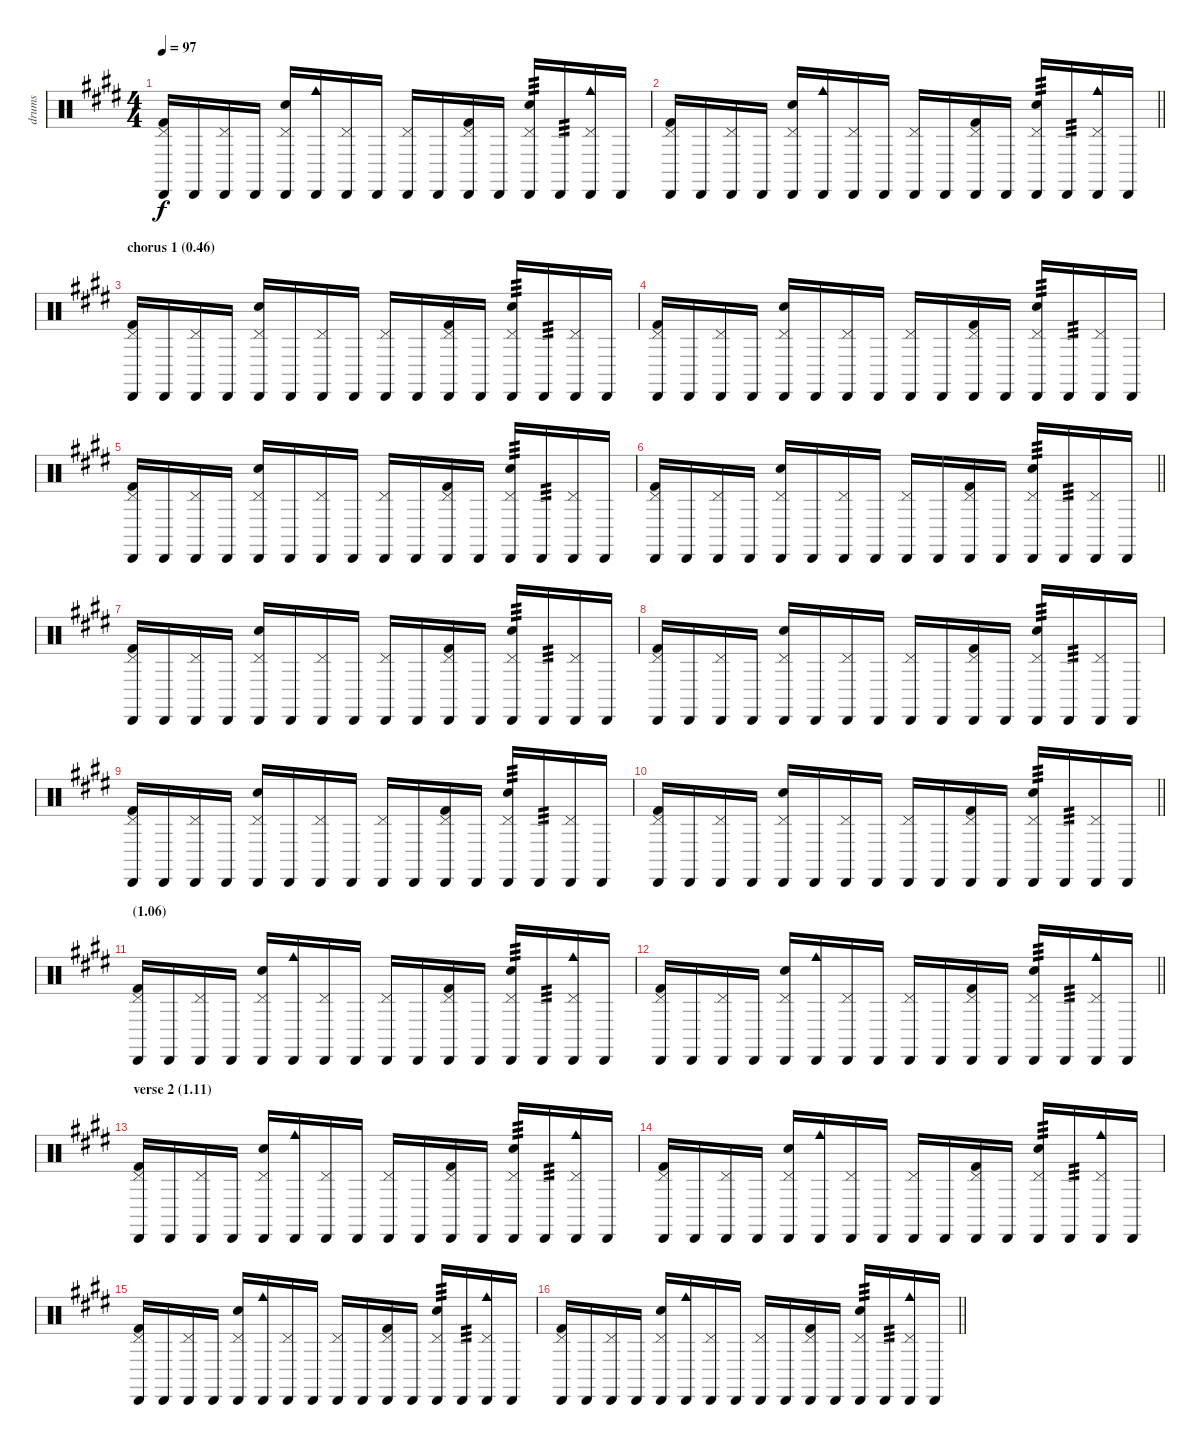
\track ("drums" "drums") {instrument percussion}
\staff {score}
\articulation defaults
\ts (4 4)
\tempo 97
\clef neutral
\ks e
("Pedal Hi-Hat (hit)" "Cabasa (hit)" "Kick (hit) 2").16{dy f} "Cabasa (hit)".16 ("Pedal Hi-Hat (hit)" "Cabasa (hit)").16 "Cabasa (hit)".16 ("Pedal Hi-Hat (hit)" "Cabasa (hit)" "Electric Snare (hit)").16 ("Cabasa (hit)" "Cowbell medium (hit)").16 ("Pedal Hi-Hat (hit)" "Cabasa (hit)").16 "Cabasa (hit)".16 ("Pedal Hi-Hat (hit)" "Cabasa (hit)").16 "Cabasa (hit)".16 ("Pedal Hi-Hat (hit)" "Cabasa (hit)" "Kick (hit) 2").16 "Cabasa (hit)".16 ("Pedal Hi-Hat (hit)" "Cabasa (hit)" "Electric Snare (hit)").16{tp 3} "Cabasa (hit)".16{tp 3} ("Pedal Hi-Hat (hit)" "Cabasa (hit)" "Cowbell medium (hit)").16 "Cabasa (hit)".16 |
\barLineRight lightlight
("Pedal Hi-Hat (hit)" "Cabasa (hit)" "Kick (hit) 2").16 "Cabasa (hit)".16 ("Pedal Hi-Hat (hit)" "Cabasa (hit)").16 "Cabasa (hit)".16 ("Pedal Hi-Hat (hit)" "Cabasa (hit)" "Electric Snare (hit)").16 ("Cabasa (hit)" "Cowbell medium (hit)").16 ("Pedal Hi-Hat (hit)" "Cabasa (hit)").16 "Cabasa (hit)".16 ("Pedal Hi-Hat (hit)" "Cabasa (hit)").16 "Cabasa (hit)".16 ("Pedal Hi-Hat (hit)" "Cabasa (hit)" "Kick (hit) 2").16 "Cabasa (hit)".16 ("Pedal Hi-Hat (hit)" "Cabasa (hit)" "Electric Snare (hit)").16{tp 3} "Cabasa (hit)".16{tp 3} ("Pedal Hi-Hat (hit)" "Cabasa (hit)" "Cowbell medium (hit)").16 "Cabasa (hit)".16 |
\section ("" "chorus 1 (0.46)")
("Pedal Hi-Hat (hit)" "Cabasa (hit)" "Kick (hit) 2").16 "Cabasa (hit)".16 ("Pedal Hi-Hat (hit)" "Cabasa (hit)").16 "Cabasa (hit)".16 ("Pedal Hi-Hat (hit)" "Cabasa (hit)" "Electric Snare (hit)").16 "Cabasa (hit)".16 ("Pedal Hi-Hat (hit)" "Cabasa (hit)").16 "Cabasa (hit)".16 ("Pedal Hi-Hat (hit)" "Cabasa (hit)").16 "Cabasa (hit)".16 ("Pedal Hi-Hat (hit)" "Cabasa (hit)" "Kick (hit) 2").16 "Cabasa (hit)".16 ("Pedal Hi-Hat (hit)" "Cabasa (hit)" "Electric Snare (hit)").16{tp 3} "Cabasa (hit)".16{tp 3} ("Pedal Hi-Hat (hit)" "Cabasa (hit)").16 "Cabasa (hit)".16 |
("Pedal Hi-Hat (hit)" "Cabasa (hit)" "Kick (hit) 2").16 "Cabasa (hit)".16 ("Pedal Hi-Hat (hit)" "Cabasa (hit)").16 "Cabasa (hit)".16 ("Pedal Hi-Hat (hit)" "Cabasa (hit)" "Electric Snare (hit)").16 "Cabasa (hit)".16 ("Pedal Hi-Hat (hit)" "Cabasa (hit)").16 "Cabasa (hit)".16 ("Pedal Hi-Hat (hit)" "Cabasa (hit)").16 "Cabasa (hit)".16 ("Pedal Hi-Hat (hit)" "Cabasa (hit)" "Kick (hit) 2").16 "Cabasa (hit)".16 ("Pedal Hi-Hat (hit)" "Cabasa (hit)" "Electric Snare (hit)").16{tp 3} "Cabasa (hit)".16{tp 3} ("Pedal Hi-Hat (hit)" "Cabasa (hit)").16 "Cabasa (hit)".16 |
("Pedal Hi-Hat (hit)" "Cabasa (hit)" "Kick (hit) 2").16 "Cabasa (hit)".16 ("Pedal Hi-Hat (hit)" "Cabasa (hit)").16 "Cabasa (hit)".16 ("Pedal Hi-Hat (hit)" "Cabasa (hit)" "Electric Snare (hit)").16 "Cabasa (hit)".16 ("Pedal Hi-Hat (hit)" "Cabasa (hit)").16 "Cabasa (hit)".16 ("Pedal Hi-Hat (hit)" "Cabasa (hit)").16 "Cabasa (hit)".16 ("Pedal Hi-Hat (hit)" "Cabasa (hit)" "Kick (hit) 2").16 "Cabasa (hit)".16 ("Pedal Hi-Hat (hit)" "Cabasa (hit)" "Electric Snare (hit)").16{tp 3} "Cabasa (hit)".16{tp 3} ("Pedal Hi-Hat (hit)" "Cabasa (hit)").16 "Cabasa (hit)".16 |
\barLineRight lightlight
("Pedal Hi-Hat (hit)" "Cabasa (hit)" "Kick (hit) 2").16 "Cabasa (hit)".16 ("Pedal Hi-Hat (hit)" "Cabasa (hit)").16 "Cabasa (hit)".16 ("Pedal Hi-Hat (hit)" "Cabasa (hit)" "Electric Snare (hit)").16 "Cabasa (hit)".16 ("Pedal Hi-Hat (hit)" "Cabasa (hit)").16 "Cabasa (hit)".16 ("Pedal Hi-Hat (hit)" "Cabasa (hit)").16 "Cabasa (hit)".16 ("Pedal Hi-Hat (hit)" "Cabasa (hit)" "Kick (hit) 2").16 "Cabasa (hit)".16 ("Pedal Hi-Hat (hit)" "Cabasa (hit)" "Electric Snare (hit)").16{tp 3} "Cabasa (hit)".16{tp 3} ("Pedal Hi-Hat (hit)" "Cabasa (hit)").16 "Cabasa (hit)".16 |
("Pedal Hi-Hat (hit)" "Cabasa (hit)" "Kick (hit) 2").16 "Cabasa (hit)".16 ("Pedal Hi-Hat (hit)" "Cabasa (hit)").16 "Cabasa (hit)".16 ("Pedal Hi-Hat (hit)" "Cabasa (hit)" "Electric Snare (hit)").16 "Cabasa (hit)".16 ("Pedal Hi-Hat (hit)" "Cabasa (hit)").16 "Cabasa (hit)".16 ("Pedal Hi-Hat (hit)" "Cabasa (hit)").16 "Cabasa (hit)".16 ("Pedal Hi-Hat (hit)" "Cabasa (hit)" "Kick (hit) 2").16 "Cabasa (hit)".16 ("Pedal Hi-Hat (hit)" "Cabasa (hit)" "Electric Snare (hit)").16{tp 3} "Cabasa (hit)".16{tp 3} ("Pedal Hi-Hat (hit)" "Cabasa (hit)").16 "Cabasa (hit)".16 |
("Pedal Hi-Hat (hit)" "Cabasa (hit)" "Kick (hit) 2").16 "Cabasa (hit)".16 ("Pedal Hi-Hat (hit)" "Cabasa (hit)").16 "Cabasa (hit)".16 ("Pedal Hi-Hat (hit)" "Cabasa (hit)" "Electric Snare (hit)").16 "Cabasa (hit)".16 ("Pedal Hi-Hat (hit)" "Cabasa (hit)").16 "Cabasa (hit)".16 ("Pedal Hi-Hat (hit)" "Cabasa (hit)").16 "Cabasa (hit)".16 ("Pedal Hi-Hat (hit)" "Cabasa (hit)" "Kick (hit) 2").16 "Cabasa (hit)".16 ("Pedal Hi-Hat (hit)" "Cabasa (hit)" "Electric Snare (hit)").16{tp 3} "Cabasa (hit)".16{tp 3} ("Pedal Hi-Hat (hit)" "Cabasa (hit)").16 "Cabasa (hit)".16 |
("Pedal Hi-Hat (hit)" "Cabasa (hit)" "Kick (hit) 2").16 "Cabasa (hit)".16 ("Pedal Hi-Hat (hit)" "Cabasa (hit)").16 "Cabasa (hit)".16 ("Pedal Hi-Hat (hit)" "Cabasa (hit)" "Electric Snare (hit)").16 "Cabasa (hit)".16 ("Pedal Hi-Hat (hit)" "Cabasa (hit)").16 "Cabasa (hit)".16 ("Pedal Hi-Hat (hit)" "Cabasa (hit)").16 "Cabasa (hit)".16 ("Pedal Hi-Hat (hit)" "Cabasa (hit)" "Kick (hit) 2").16 "Cabasa (hit)".16 ("Pedal Hi-Hat (hit)" "Cabasa (hit)" "Electric Snare (hit)").16{tp 3} "Cabasa (hit)".16{tp 3} ("Pedal Hi-Hat (hit)" "Cabasa (hit)").16 "Cabasa (hit)".16 |
\barLineRight lightlight
("Pedal Hi-Hat (hit)" "Cabasa (hit)" "Kick (hit) 2").16 "Cabasa (hit)".16 ("Pedal Hi-Hat (hit)" "Cabasa (hit)").16 "Cabasa (hit)".16 ("Pedal Hi-Hat (hit)" "Cabasa (hit)" "Electric Snare (hit)").16 "Cabasa (hit)".16 ("Pedal Hi-Hat (hit)" "Cabasa (hit)").16 "Cabasa (hit)".16 ("Pedal Hi-Hat (hit)" "Cabasa (hit)").16 "Cabasa (hit)".16 ("Pedal Hi-Hat (hit)" "Cabasa (hit)" "Kick (hit) 2").16 "Cabasa (hit)".16 ("Pedal Hi-Hat (hit)" "Cabasa (hit)" "Electric Snare (hit)").16{tp 3} "Cabasa (hit)".16{tp 3} ("Pedal Hi-Hat (hit)" "Cabasa (hit)").16 "Cabasa (hit)".16 |
\section ("" "(1.06)")
("Pedal Hi-Hat (hit)" "Cabasa (hit)" "Kick (hit) 2").16 "Cabasa (hit)".16 ("Pedal Hi-Hat (hit)" "Cabasa (hit)").16 "Cabasa (hit)".16 ("Pedal Hi-Hat (hit)" "Cabasa (hit)" "Electric Snare (hit)").16 ("Cabasa (hit)" "Cowbell medium (hit)").16 ("Pedal Hi-Hat (hit)" "Cabasa (hit)").16 "Cabasa (hit)".16 ("Pedal Hi-Hat (hit)" "Cabasa (hit)").16 "Cabasa (hit)".16 ("Pedal Hi-Hat (hit)" "Cabasa (hit)" "Kick (hit) 2").16 "Cabasa (hit)".16 ("Pedal Hi-Hat (hit)" "Cabasa (hit)" "Electric Snare (hit)").16{tp 3} "Cabasa (hit)".16{tp 3} ("Pedal Hi-Hat (hit)" "Cabasa (hit)" "Cowbell medium (hit)").16 "Cabasa (hit)".16 |
\barLineRight lightlight
("Pedal Hi-Hat (hit)" "Cabasa (hit)" "Kick (hit) 2").16 "Cabasa (hit)".16 ("Pedal Hi-Hat (hit)" "Cabasa (hit)").16 "Cabasa (hit)".16 ("Pedal Hi-Hat (hit)" "Cabasa (hit)" "Electric Snare (hit)").16 ("Cabasa (hit)" "Cowbell medium (hit)").16 ("Pedal Hi-Hat (hit)" "Cabasa (hit)").16 "Cabasa (hit)".16 ("Pedal Hi-Hat (hit)" "Cabasa (hit)").16 "Cabasa (hit)".16 ("Pedal Hi-Hat (hit)" "Cabasa (hit)" "Kick (hit) 2").16 "Cabasa (hit)".16 ("Pedal Hi-Hat (hit)" "Cabasa (hit)" "Electric Snare (hit)").16{tp 3} "Cabasa (hit)".16{tp 3} ("Pedal Hi-Hat (hit)" "Cabasa (hit)" "Cowbell medium (hit)").16 "Cabasa (hit)".16 |
\section ("" "verse 2 (1.11)")
("Pedal Hi-Hat (hit)" "Cabasa (hit)" "Kick (hit) 2").16 "Cabasa (hit)".16 ("Pedal Hi-Hat (hit)" "Cabasa (hit)").16 "Cabasa (hit)".16 ("Pedal Hi-Hat (hit)" "Cabasa (hit)" "Electric Snare (hit)").16 ("Cabasa (hit)" "Cowbell medium (hit)").16 ("Pedal Hi-Hat (hit)" "Cabasa (hit)").16 "Cabasa (hit)".16 ("Pedal Hi-Hat (hit)" "Cabasa (hit)").16 "Cabasa (hit)".16 ("Pedal Hi-Hat (hit)" "Cabasa (hit)" "Kick (hit) 2").16 "Cabasa (hit)".16 ("Pedal Hi-Hat (hit)" "Cabasa (hit)" "Electric Snare (hit)").16{tp 3} "Cabasa (hit)".16{tp 3} ("Pedal Hi-Hat (hit)" "Cabasa (hit)" "Cowbell medium (hit)").16 "Cabasa (hit)".16 |
("Pedal Hi-Hat (hit)" "Cabasa (hit)" "Kick (hit) 2").16 "Cabasa (hit)".16 ("Pedal Hi-Hat (hit)" "Cabasa (hit)").16 "Cabasa (hit)".16 ("Pedal Hi-Hat (hit)" "Cabasa (hit)" "Electric Snare (hit)").16 ("Cabasa (hit)" "Cowbell medium (hit)").16 ("Pedal Hi-Hat (hit)" "Cabasa (hit)").16 "Cabasa (hit)".16 ("Pedal Hi-Hat (hit)" "Cabasa (hit)").16 "Cabasa (hit)".16 ("Pedal Hi-Hat (hit)" "Cabasa (hit)" "Kick (hit) 2").16 "Cabasa (hit)".16 ("Pedal Hi-Hat (hit)" "Cabasa (hit)" "Electric Snare (hit)").16{tp 3} "Cabasa (hit)".16{tp 3} ("Pedal Hi-Hat (hit)" "Cabasa (hit)" "Cowbell medium (hit)").16 "Cabasa (hit)".16 |
("Pedal Hi-Hat (hit)" "Cabasa (hit)" "Kick (hit) 2").16 "Cabasa (hit)".16 ("Pedal Hi-Hat (hit)" "Cabasa (hit)").16 "Cabasa (hit)".16 ("Pedal Hi-Hat (hit)" "Cabasa (hit)" "Electric Snare (hit)").16 ("Cabasa (hit)" "Cowbell medium (hit)").16 ("Pedal Hi-Hat (hit)" "Cabasa (hit)").16 "Cabasa (hit)".16 ("Pedal Hi-Hat (hit)" "Cabasa (hit)").16 "Cabasa (hit)".16 ("Pedal Hi-Hat (hit)" "Cabasa (hit)" "Kick (hit) 2").16 "Cabasa (hit)".16 ("Pedal Hi-Hat (hit)" "Cabasa (hit)" "Electric Snare (hit)").16{tp 3} "Cabasa (hit)".16{tp 3} ("Pedal Hi-Hat (hit)" "Cabasa (hit)" "Cowbell medium (hit)").16 "Cabasa (hit)".16 |
\barLineRight lightlight
("Pedal Hi-Hat (hit)" "Cabasa (hit)" "Kick (hit) 2").16 "Cabasa (hit)".16 ("Pedal Hi-Hat (hit)" "Cabasa (hit)").16 "Cabasa (hit)".16 ("Pedal Hi-Hat (hit)" "Cabasa (hit)" "Electric Snare (hit)").16 ("Cabasa (hit)" "Cowbell medium (hit)").16 ("Pedal Hi-Hat (hit)" "Cabasa (hit)").16 "Cabasa (hit)".16 ("Pedal Hi-Hat (hit)" "Cabasa (hit)").16 "Cabasa (hit)".16 ("Pedal Hi-Hat (hit)" "Cabasa (hit)" "Kick (hit) 2").16 "Cabasa (hit)".16 ("Pedal Hi-Hat (hit)" "Cabasa (hit)" "Electric Snare (hit)").16{tp 3} "Cabasa (hit)".16{tp 3} ("Pedal Hi-Hat (hit)" "Cabasa (hit)" "Cowbell medium (hit)").16 "Cabasa (hit)".16
